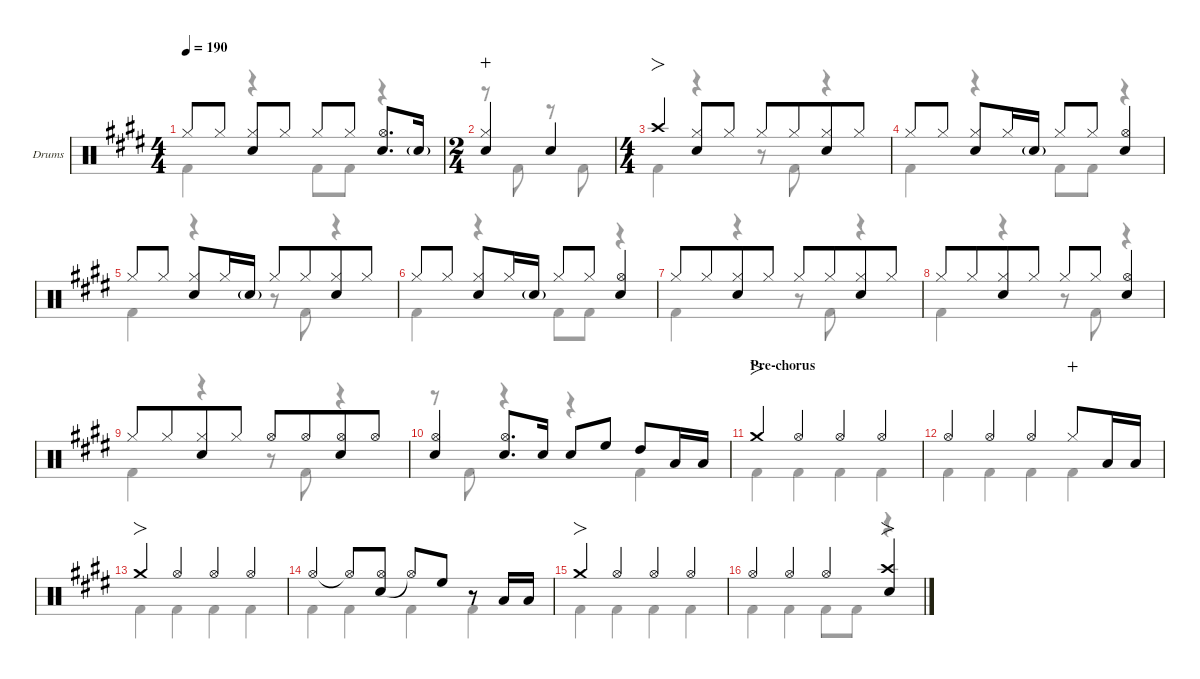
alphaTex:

\defaultSystemsLayout 4
\hideDynamics
\bracketExtendMode nobrackets
\firstSystemTrackNameOrientation horizontal
\track ("Drums" "Drums") {defaultSystemsLayout 4 instrument percussion}
\staff {score}
\articulation defaults
\voice
\ts (4 4)
\tempo 190
\clef neutral
\scale
0.24446
\ks e "Hi-Hat (closed)"{acc forcenatural}.8{dy f beam Up} "Hi-Hat (closed)"{acc forcenatural}.8{dy mf beam Up}
("Hi-Hat (closed)"{acc forcenatural} "Snare (hit) 2"{acc forcenatural}).8{dy f beam Up} "Hi-Hat (closed)"{acc forcenatural}.8{dy mf beam Up} "Hi-Hat (closed)"{acc forcenatural}.8{dy f beam Up} "Hi-Hat (closed)"{acc forcenatural}.8{dy mf beam Up beam split} ("Hi-Hat (open)"{acc forcenatural} "Snare (hit) 2"{acc forcenatural}).8{d dy f beam Up} "Snare (hit) 2"{g acc forcenatural}.16{dy mf beam Up} |
\ts (2 4)
\beaming (8 2 2)
\scale
0.244461 ("Snare (hit) 2"{acc forcenatural} "Hi-Hat (closed)"{acc forcenatural}).4{dy f wahc beam Up} "Snare (hit) 2"{acc forcenatural}.4{beam Up} |
\ts (4 4)
\beaming (8 4 4)
\scale
0.266619 "Crash high (hit)"{acc forcenatural}.4{fo beam Up} ("Hi-Hat (closed)"{acc forcenatural} "Snare (hit) 2"{acc forcenatural}).8{beam Up} "Hi-Hat (closed)"{acc forcenatural}.8{dy mf beam Up} "Hi-Hat (closed)"{acc forcenatural}.8{dy f beam Up} "Hi-Hat (closed)"{acc forcenatural}.8{dy mf beam Up} ("Hi-Hat (closed)"{acc forcenatural} "Snare (hit) 2"{acc forcenatural}).8{dy f beam Up} "Hi-Hat (closed)"{acc forcenatural}.8{dy mf beam Up} |
\scale
0.24446 "Hi-Hat (closed)"{acc forcenatural}.8{dy f beam Up} "Hi-Hat (closed)"{acc forcenatural}.8{dy mf beam Up beam split} ("Hi-Hat (closed)"{acc forcenatural} "Snare (hit) 2"{acc forcenatural}).8{dy f beam Up} "Hi-Hat (closed)"{acc forcenatural}.16{dy mf beam Up} "Snare (hit) 2"{g acc forcenatural}.16{beam Up} "Hi-Hat (closed)"{acc forcenatural}.8{dy f beam Up} "Hi-Hat (closed)"{acc forcenatural}.8{dy mf beam Up} ("Hi-Hat (open)"{acc forcenatural} "Snare (hit) 2"{acc forcenatural}).4{dy f beam Up} |
\scale
0.244461 "Hi-Hat (closed)"{acc forcenatural}.8{beam Up} "Hi-Hat (closed)"{acc forcenatural}.8{dy mf beam Up beam split} ("Hi-Hat (closed)"{acc forcenatural} "Snare (hit) 2"{acc forcenatural}).8{dy f beam Up} "Hi-Hat (closed)"{acc forcenatural}.16{dy mf beam Up} "Snare (hit) 2"{g acc forcenatural}.16{beam Up} "Hi-Hat (closed)"{acc forcenatural}.8{dy f beam Up} "Hi-Hat (closed)"{acc forcenatural}.8{dy mf beam Up} ("Hi-Hat (closed)"{acc forcenatural} "Snare (hit) 2"{acc forcenatural}).8{dy f beam Up} "Hi-Hat (closed)"{acc forcenatural}.8{dy mf beam Up} |
\scale
0.244461 "Hi-Hat (closed)"{acc forcenatural}.8{dy f beam Up} "Hi-Hat (closed)"{acc forcenatural}.8{dy mf beam Up beam split} ("Hi-Hat (closed)"{acc forcenatural} "Snare (hit) 2"{acc forcenatural}).8{dy f beam Up} "Hi-Hat (closed)"{acc forcenatural}.16{dy mf beam Up} "Snare (hit) 2"{g acc forcenatural}.16{beam Up} "Hi-Hat (closed)"{acc forcenatural}.8{dy f beam Up} "Hi-Hat (closed)"{acc forcenatural}.8{dy mf beam Up} ("Hi-Hat (open)"{acc forcenatural} "Snare (hit) 2"{acc forcenatural}).4{dy f beam Up} |
\scale
0.266618 "Hi-Hat (closed)"{acc forcenatural}.8{beam Up} "Hi-Hat (closed)"{acc forcenatural}.8{dy mf beam Up} ("Hi-Hat (closed)"{acc forcenatural} "Snare (hit) 2"{acc forcenatural}).8{dy f beam Up} "Hi-Hat (closed)"{acc forcenatural}.8{dy mf beam Up} "Hi-Hat (closed)"{acc forcenatural}.8{dy f beam Up} "Hi-Hat (closed)"{acc forcenatural}.8{dy mf beam Up} ("Hi-Hat (closed)"{acc forcenatural} "Snare (hit) 2"{acc forcenatural}).8{dy f beam Up} "Hi-Hat (closed)"{acc forcenatural}.8{dy mf beam Up} |
\scale
0.244461 "Hi-Hat (closed)"{acc forcenatural}.8{dy f beam Up} "Hi-Hat (closed)"{acc forcenatural}.8{dy mf beam Up} ("Hi-Hat (closed)"{acc forcenatural} "Snare (hit) 2"{acc forcenatural}).8{dy f beam Up} "Hi-Hat (closed)"{acc forcenatural}.8{dy mf beam Up} "Hi-Hat (closed)"{acc forcenatural}.8{dy f beam Up} "Hi-Hat (closed)"{acc forcenatural}.8{dy mf beam Up} ("Hi-Hat (open)"{acc forcenatural} "Snare (hit) 2"{acc forcenatural}).4{dy f beam Up} |
\scale
0.24446 "Hi-Hat (closed)"{acc forcenatural}.8{beam Up} "Hi-Hat (closed)"{acc forcenatural}.8{dy mf beam Up} ("Hi-Hat (closed)"{acc forcenatural} "Snare (hit) 2"{acc forcenatural}).8{dy f beam Up} "Hi-Hat (closed)"{acc forcenatural}.8{dy mf beam Up} "Hi-Hat (open)"{acc forcenatural}.8{beam Up} "Hi-Hat (open)"{acc forcenatural}.8{beam Up} ("Hi-Hat (open)"{acc forcenatural} "Snare (hit) 2"{acc forcenatural}).8{dy f beam Up} "Hi-Hat (open)"{acc forcenatural}.8{dy mf beam Up} |
\scale
0.244461 ("Hi-Hat (open)"{acc forcenatural} "Snare (hit) 2"{acc forcenatural}).4{dy f beam Up} ("Hi-Hat (open)"{acc forcenatural} "Snare (hit) 2"{acc forcenatural}).8{d beam Up} "Snare (hit) 2"{acc forcenatural}.16{dy mf beam Up} "Snare (hit) 2"{acc forcenatural}.8{dy f beam Up} "High Floor Tom (hit)"{acc forcenatural}.8{beam Up beam split} "High Tom (hit)"{acc forcenatural}.8{beam Up beam merge} "Low Tom (hit)"{acc forcenatural}.16{beam Up} "Low Tom (hit)"{acc forcenatural}.16{beam Up} |
\section ("" "Pre-chorus")
\scale
0.266618 "Crash medium (hit)"{acc forcenatural}.4{fo beam Up} "Hi-Hat (open)"{acc forcenatural}.4{beam Up} "Hi-Hat (open)"{acc forcenatural}.4{beam Up} "Hi-Hat (open)"{acc forcenatural}.4{beam Up} |
\scale
0.244461 "Hi-Hat (open)"{acc forcenatural}.4{beam Up} "Hi-Hat (open)"{acc forcenatural}.4{beam Up} "Hi-Hat (open)"{acc forcenatural}.4{beam Up} "Hi-Hat (closed)"{acc forcenatural}.8{dy mp wahc beam Up} "Low Tom (hit)"{acc forcenatural}.16{dy f beam Up} "Low Tom (hit)"{acc forcenatural}.16{beam Up} |
\scale
0.244461 "Crash medium (hit)"{acc forcenatural}.4{fo beam Up} "Hi-Hat (open)"{acc forcenatural}.4{beam Up} "Hi-Hat (open)"{acc forcenatural}.4{beam Up} "Hi-Hat (open)"{acc forcenatural}.4{beam Up} |
\scale
0.244461 "Hi-Hat (open)"{acc forcenatural}.4{beam Up} "Hi-Hat (open)"{t acc forcenatural}.8{beam Up} ("Snare (hit) 2"{acc forcenatural} "Hi-Hat (open)"{acc forcenatural}).8{beam Up} "Hi-Hat (open)"{t acc forcenatural}.8{beam Up} "High Floor Tom (hit)"{acc forcenatural}.8{beam Up beam split} r.8{beam Up beam split} "Low Tom (hit)"{acc forcenatural}.16{beam Up} "Low Tom (hit)"{acc forcenatural}.16{beam Up} |
\scale
0.266619 "Crash medium (hit)"{acc forcenatural}.4{fo beam Up} "Hi-Hat (open)"{acc forcenatural}.4{beam Up} "Hi-Hat (open)"{acc forcenatural}.4{beam Up} "Hi-Hat (open)"{acc forcenatural}.4{beam Up} |
\scale
0.244461 "Hi-Hat (open)"{acc forcenatural}.4{beam Up} "Hi-Hat (open)"{acc forcenatural}.4{beam Up} "Hi-Hat (open)"{acc forcenatural}.4{beam Up} ("Crash high (hit)"{acc forcenatural} "Snare (hit) 2"{acc forcenatural}).4{fo beam Up}
\voice
\clef neutral
\ottava regular
\simile none
\scale
0.24446
\ks e "Kick (hit) 2"{acc forcenatural}.4{dy f beam Down}
r.4{beam Down} "Kick (hit) 2"{acc forcenatural}.8{beam Down} "Kick (hit) 2"{acc forcenatural}.8{beam Down} r.4{beam Down} |
\scale
0.244461 r.8{beam Down} "Kick (hit) 2"{acc forcenatural}.8{beam Down} r.8{beam Down} "Kick (hit) 2"{acc forcenatural}.8{beam Down} |
\scale
0.266619 "Kick (hit) 2"{acc forcenatural}.4{beam Down} r.4{beam Down} r.8{beam Down} "Kick (hit) 2"{acc forcenatural}.8{beam Down} r.4{beam Down} |
\scale
0.24446 "Kick (hit) 2"{acc forcenatural}.4{beam Down} r.4{beam Down} "Kick (hit) 2"{acc forcenatural}.8{beam Down} "Kick (hit) 2"{acc forcenatural}.8{beam Down} r.4{beam Down} |
\scale
0.244461 "Kick (hit) 2"{acc forcenatural}.4{beam Down} r.4{beam Down} r.8{beam Down} "Kick (hit) 2"{acc forcenatural}.8{beam Down} r.4{beam Down} |
\scale
0.244461 "Kick (hit) 2"{acc forcenatural}.4{beam Down} r.4{beam Down} "Kick (hit) 2"{acc forcenatural}.8{beam Down} "Kick (hit) 2"{acc forcenatural}.8{beam Down} r.4{beam Down} |
\scale
0.266618 "Kick (hit) 2"{acc forcenatural}.4{beam Down} r.4{beam Down} r.8{beam Down} "Kick (hit) 2"{acc forcenatural}.8{beam Down} r.4{beam Down} |
\scale
0.244461 "Kick (hit) 2"{acc forcenatural}.4{beam Down} r.4{beam Down} r.8{beam Down} "Kick (hit) 2"{acc forcenatural}.8{beam Down} r.4{beam Down} |
\scale
0.24446 "Kick (hit) 2"{acc forcenatural}.4{beam Down} r.4{beam Down} r.8{beam Down} "Kick (hit) 2"{acc forcenatural}.8{beam Down} r.4{beam Down} |
\scale
0.244461 r.8{beam Down} "Kick (hit) 2"{acc forcenatural}.8{beam Down} r.4{beam Down} r.4{beam Down} "Kick (hit) 2"{acc forcenatural}.4{beam Down} |
\scale
0.266618 "Kick (hit) 2"{acc forcenatural}.4{beam Down} "Kick (hit) 2"{acc forcenatural}.4{beam Down} "Kick (hit) 2"{acc forcenatural}.4{beam Down} "Kick (hit) 2"{acc forcenatural}.4{beam Down} |
\scale
0.244461 "Kick (hit) 2"{acc forcenatural}.4{beam Down} "Kick (hit) 2"{acc forcenatural}.4{beam Down} "Kick (hit) 2"{acc forcenatural}.4{beam Down} "Kick (hit) 2"{acc forcenatural}.4{beam Down} |
\scale
0.244461 "Kick (hit) 2"{acc forcenatural}.4{beam Down} "Kick (hit) 2"{acc forcenatural}.4{beam Down} "Kick (hit) 2"{acc forcenatural}.4{beam Down} "Kick (hit) 2"{acc forcenatural}.4{beam Down} |
\scale
0.244461 "Kick (hit) 2"{acc forcenatural}.4{beam Down} "Kick (hit) 2"{acc forcenatural}.4{beam Down} "Kick (hit) 2"{acc forcenatural}.4{beam Down} "Kick (hit) 2"{acc forcenatural}.4{beam Down} |
\scale
0.266619 "Kick (hit) 2"{acc forcenatural}.4{beam Down} "Kick (hit) 2"{acc forcenatural}.4{beam Down} "Kick (hit) 2"{acc forcenatural}.4{beam Down} "Kick (hit) 2"{acc forcenatural}.4{beam Down} |
\scale
0.244461 "Kick (hit) 2"{acc forcenatural}.4{beam Down} "Kick (hit) 2"{acc forcenatural}.4{beam Down} "Kick (hit) 2"{acc forcenatural}.8{beam Down} "Kick (hit) 2"{acc forcenatural}.8{beam Down} r.4{beam Down}
